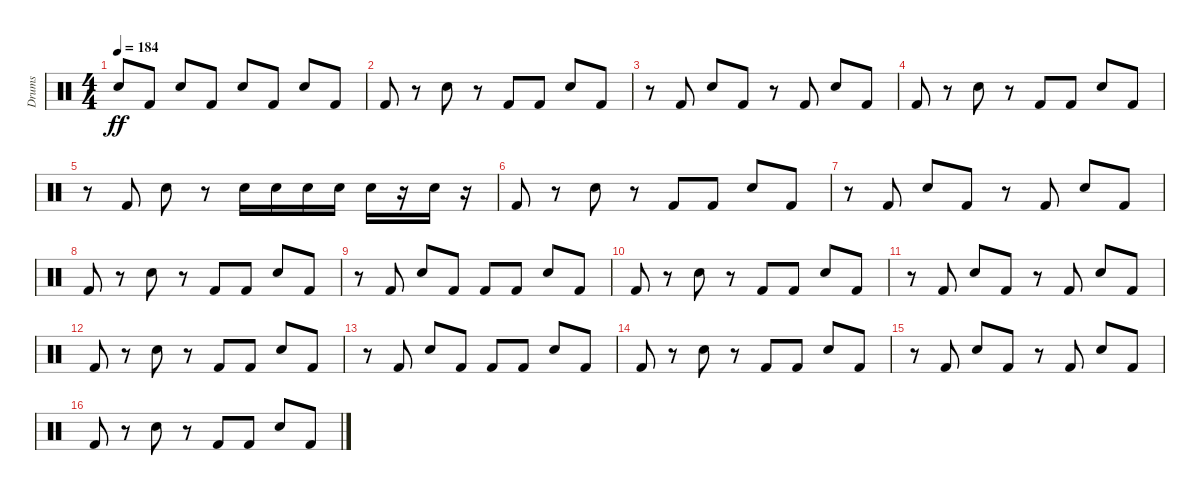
\track ("Drums" "Drums") {instrument percussion}
\staff {score}
\articulation defaults
\ts (4 4)
\tempo 184
\clef neutral
\ks c "Electric Snare (hit)".8{dy ff} "Kick (hit) 2".8 "Electric Snare (hit)".8 "Kick (hit) 2".8 "Electric Snare (hit)".8 "Kick (hit) 2".8 "Electric Snare (hit)".8 "Kick (hit) 2".8
|
"Kick (hit) 2".8 r.8 "Electric Snare (hit)".8 r.8 "Kick (hit) 2".8 "Kick (hit) 2".8 "Electric Snare (hit)".8 "Kick (hit) 2".8 |
r.8 "Kick (hit) 2".8 "Electric Snare (hit)".8 "Kick (hit) 2".8 r.8 "Kick (hit) 2".8 "Electric Snare (hit)".8 "Kick (hit) 2".8 |
"Kick (hit) 2".8 r.8 "Electric Snare (hit)".8 r.8 "Kick (hit) 2".8 "Kick (hit) 2".8 "Electric Snare (hit)".8 "Kick (hit) 2".8 |
r.8 "Kick (hit) 2".8 "Electric Snare (hit)".8 r.8 "Electric Snare (hit)".16 "Electric Snare (hit)".16 "Electric Snare (hit)".16 "Electric Snare (hit)".16 "Electric Snare (hit)".16 r.16 "Electric Snare (hit)".16 r.16 |
"Kick (hit) 2".8 r.8 "Electric Snare (hit)".8 r.8 "Kick (hit) 2".8 "Kick (hit) 2".8 "Electric Snare (hit)".8 "Kick (hit) 2".8 |
r.8 "Kick (hit) 2".8 "Electric Snare (hit)".8 "Kick (hit) 2".8 r.8 "Kick (hit) 2".8 "Electric Snare (hit)".8 "Kick (hit) 2".8 |
"Kick (hit) 2".8 r.8 "Electric Snare (hit)".8 r.8 "Kick (hit) 2".8 "Kick (hit) 2".8 "Electric Snare (hit)".8 "Kick (hit) 2".8 |
r.8 "Kick (hit) 2".8 "Electric Snare (hit)".8 "Kick (hit) 2".8 "Kick (hit) 2".8 "Kick (hit) 2".8 "Electric Snare (hit)".8 "Kick (hit) 2".8 |
"Kick (hit) 2".8 r.8 "Electric Snare (hit)".8 r.8 "Kick (hit) 2".8 "Kick (hit) 2".8 "Electric Snare (hit)".8 "Kick (hit) 2".8 |
r.8 "Kick (hit) 2".8 "Electric Snare (hit)".8 "Kick (hit) 2".8 r.8 "Kick (hit) 2".8 "Electric Snare (hit)".8 "Kick (hit) 2".8 |
"Kick (hit) 2".8 r.8 "Electric Snare (hit)".8 r.8 "Kick (hit) 2".8 "Kick (hit) 2".8 "Electric Snare (hit)".8 "Kick (hit) 2".8 |
r.8 "Kick (hit) 2".8 "Electric Snare (hit)".8 "Kick (hit) 2".8 "Kick (hit) 2".8 "Kick (hit) 2".8 "Electric Snare (hit)".8 "Kick (hit) 2".8 |
"Kick (hit) 2".8 r.8 "Electric Snare (hit)".8 r.8 "Kick (hit) 2".8 "Kick (hit) 2".8 "Electric Snare (hit)".8 "Kick (hit) 2".8 |
r.8 "Kick (hit) 2".8 "Electric Snare (hit)".8 "Kick (hit) 2".8 r.8 "Kick (hit) 2".8 "Electric Snare (hit)".8 "Kick (hit) 2".8 |
"Kick (hit) 2".8 r.8 "Electric Snare (hit)".8 r.8 "Kick (hit) 2".8 "Kick (hit) 2".8 "Electric Snare (hit)".8 "Kick (hit) 2".8
